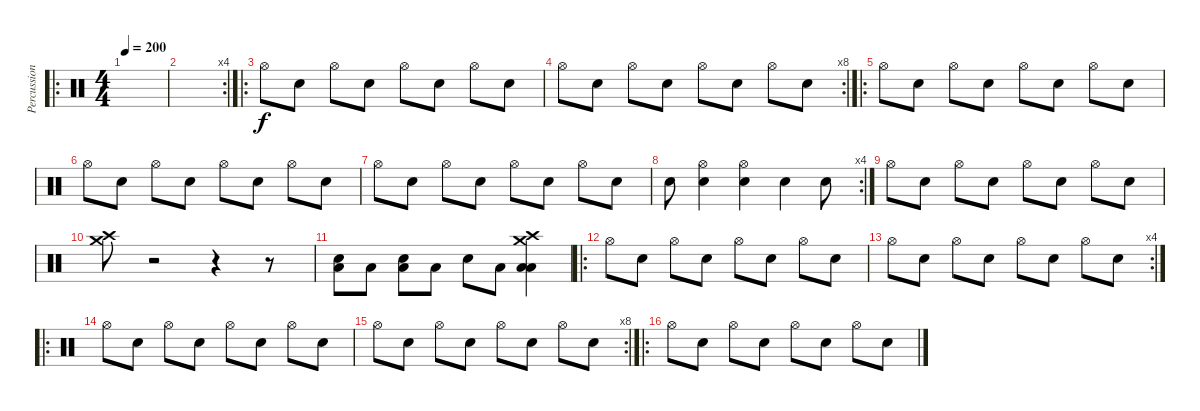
\track ("Percussion" "Percussion") {instrument percussion}
\staff {score}
\articulation defaults
\ro
\ts (4 4)
\tempo 200
\clef neutral
\ks c
|
\rc 4
|
\ro "Hi-Hat (open)".8 "Snare (hit) 2".8 "Hi-Hat (open)".8 "Snare (hit) 2".8 "Hi-Hat (open)".8 "Snare (hit) 2".8 "Hi-Hat (open)".8 "Snare (hit) 2".8
|
\rc 8 "Hi-Hat (open)".8 "Snare (hit) 2".8 "Hi-Hat (open)".8 "Snare (hit) 2".8 "Hi-Hat (open)".8 "Snare (hit) 2".8 "Hi-Hat (open)".8 "Snare (hit) 2".8
|
\ro "Hi-Hat (open)".8 "Snare (hit) 2".8 "Hi-Hat (open)".8 "Snare (hit) 2".8 "Hi-Hat (open)".8 "Snare (hit) 2".8 "Hi-Hat (open)".8 "Snare (hit) 2".8
|
"Hi-Hat (open)".8 "Snare (hit) 2".8 "Hi-Hat (open)".8 "Snare (hit) 2".8 "Hi-Hat (open)".8 "Snare (hit) 2".8 "Hi-Hat (open)".8 "Snare (hit) 2".8 |
"Hi-Hat (open)".8 "Snare (hit) 2".8 "Hi-Hat (open)".8 "Snare (hit) 2".8 "Hi-Hat (open)".8 "Snare (hit) 2".8 "Hi-Hat (open)".8 "Snare (hit) 2".8 |
\rc 4 "Electric Snare (hit)".8
("Hi-Hat (open)" "Snare (hit) 2").4 ("Hi-Hat (open)" "Snare (hit) 2").4 "Snare (hit) 2".4 "Snare (hit) 2".8 |
"Hi-Hat (open)".8 "Snare (hit) 2".8 "Hi-Hat (open)".8 "Snare (hit) 2".8 "Hi-Hat (open)".8 "Snare (hit) 2".8 "Hi-Hat (open)".8 "Snare (hit) 2".8 |
("Crash medium (hit)" "Crash high (hit)").8 r.2 r.4 r.8 |
("Snare (hit) 2" "Low Tom (hit)").8 "Low Tom (hit)".8 ("Electric Snare (hit)" "Low Tom (hit)").8 "Low Tom (hit)".8 "Snare (hit) 2".8 "Low Tom (hit)".8 ("Crash high (hit)" "Low Floor Tom (hit)" "Low Tom (hit)" "Crash medium (hit)").4 |
\ro "Hi-Hat (open)".8 "Snare (hit) 2".8 "Hi-Hat (open)".8 "Snare (hit) 2".8 "Hi-Hat (open)".8 "Snare (hit) 2".8 "Hi-Hat (open)".8 "Snare (hit) 2".8
|
\rc 4 "Hi-Hat (open)".8 "Snare (hit) 2".8 "Hi-Hat (open)".8 "Snare (hit) 2".8 "Hi-Hat (open)".8 "Snare (hit) 2".8 "Hi-Hat (open)".8 "Snare (hit) 2".8
|
\ro "Hi-Hat (open)".8 "Snare (hit) 2".8 "Hi-Hat (open)".8 "Snare (hit) 2".8 "Hi-Hat (open)".8 "Snare (hit) 2".8 "Hi-Hat (open)".8 "Snare (hit) 2".8
|
\rc 8 "Hi-Hat (open)".8 "Snare (hit) 2".8 "Hi-Hat (open)".8 "Snare (hit) 2".8 "Hi-Hat (open)".8 "Snare (hit) 2".8 "Hi-Hat (open)".8 "Snare (hit) 2".8
|
\ro "Hi-Hat (open)".8 "Snare (hit) 2".8 "Hi-Hat (open)".8 "Snare (hit) 2".8 "Hi-Hat (open)".8 "Snare (hit) 2".8 "Hi-Hat (open)".8 "Snare (hit) 2".8
